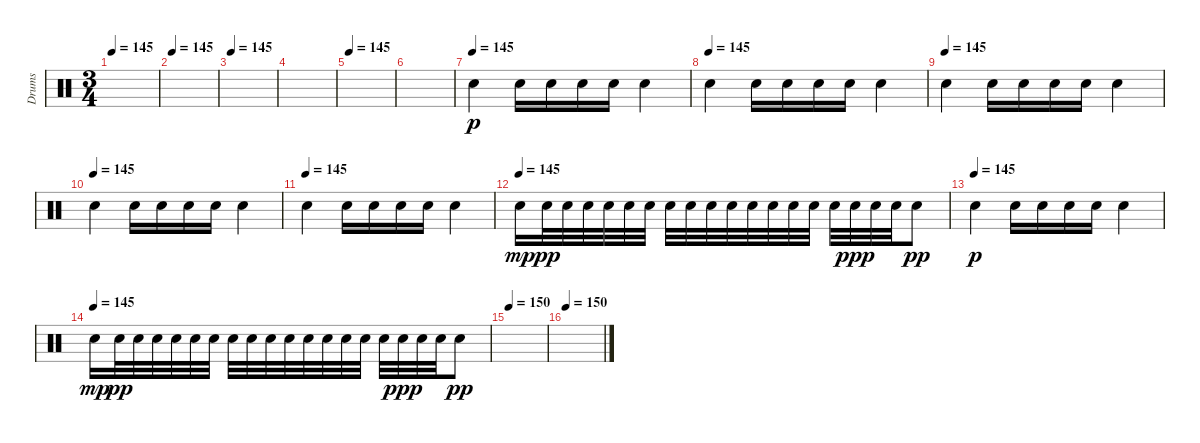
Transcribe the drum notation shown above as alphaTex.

\track ("Drums" "Drums") {instrument percussion}
\staff {score}
\articulation defaults
\ts (3 4)
\tempo 145
\clef neutral
\ks c
|
\tempo 145
|
\tempo 145
|
|
\tempo 145
|
|
\tempo (145)
"Electric Snare (hit)".4{dy p} "Electric Snare (hit)".16 "Electric Snare (hit)".16 "Electric Snare (hit)".16 "Electric Snare (hit)".16 "Electric Snare (hit)".4 |
\tempo (145)
"Electric Snare (hit)".4 "Electric Snare (hit)".16 "Electric Snare (hit)".16 "Electric Snare (hit)".16 "Electric Snare (hit)".16 "Electric Snare (hit)".4 |
\tempo (145)
"Electric Snare (hit)".4 "Electric Snare (hit)".16 "Electric Snare (hit)".16 "Electric Snare (hit)".16 "Electric Snare (hit)".16 "Electric Snare (hit)".4 |
\tempo (145)
"Electric Snare (hit)".4 "Electric Snare (hit)".16 "Electric Snare (hit)".16 "Electric Snare (hit)".16 "Electric Snare (hit)".16 "Electric Snare (hit)".4 |
\tempo (145)
"Electric Snare (hit)".4 "Electric Snare (hit)".16 "Electric Snare (hit)".16 "Electric Snare (hit)".16 "Electric Snare (hit)".16 "Electric Snare (hit)".4 |
\tempo (145)
"Electric Snare (hit)".16{dy mp} "Electric Snare (hit)".32{dy pp} "Electric Snare (hit)".32 "Electric Snare (hit)".32 "Electric Snare (hit)".32 "Electric Snare (hit)".32 "Electric Snare (hit)".32 "Electric Snare (hit)".32 "Electric Snare (hit)".32 "Electric Snare (hit)".32 "Electric Snare (hit)".32 "Electric Snare (hit)".32 "Electric Snare (hit)".32 "Electric Snare (hit)".32 "Electric Snare (hit)".32 "Electric Snare (hit)".32 "Electric Snare (hit)".32{dy ppp} "Electric Snare (hit)".32 "Electric Snare (hit)".32 "Electric Snare (hit)".8{dy pp} |
\tempo (145)
"Electric Snare (hit)".4{dy p} "Electric Snare (hit)".16 "Electric Snare (hit)".16 "Electric Snare (hit)".16 "Electric Snare (hit)".16 "Electric Snare (hit)".4 |
\tempo (145)
"Electric Snare (hit)".16{dy mp} "Electric Snare (hit)".32{dy pp} "Electric Snare (hit)".32 "Electric Snare (hit)".32 "Electric Snare (hit)".32 "Electric Snare (hit)".32 "Electric Snare (hit)".32 "Electric Snare (hit)".32 "Electric Snare (hit)".32 "Electric Snare (hit)".32 "Electric Snare (hit)".32 "Electric Snare (hit)".32 "Electric Snare (hit)".32 "Electric Snare (hit)".32 "Electric Snare (hit)".32 "Electric Snare (hit)".32 "Electric Snare (hit)".32{dy ppp} "Electric Snare (hit)".32 "Electric Snare (hit)".32 "Electric Snare (hit)".8{dy pp} |
\tempo 150
|
\tempo 150
